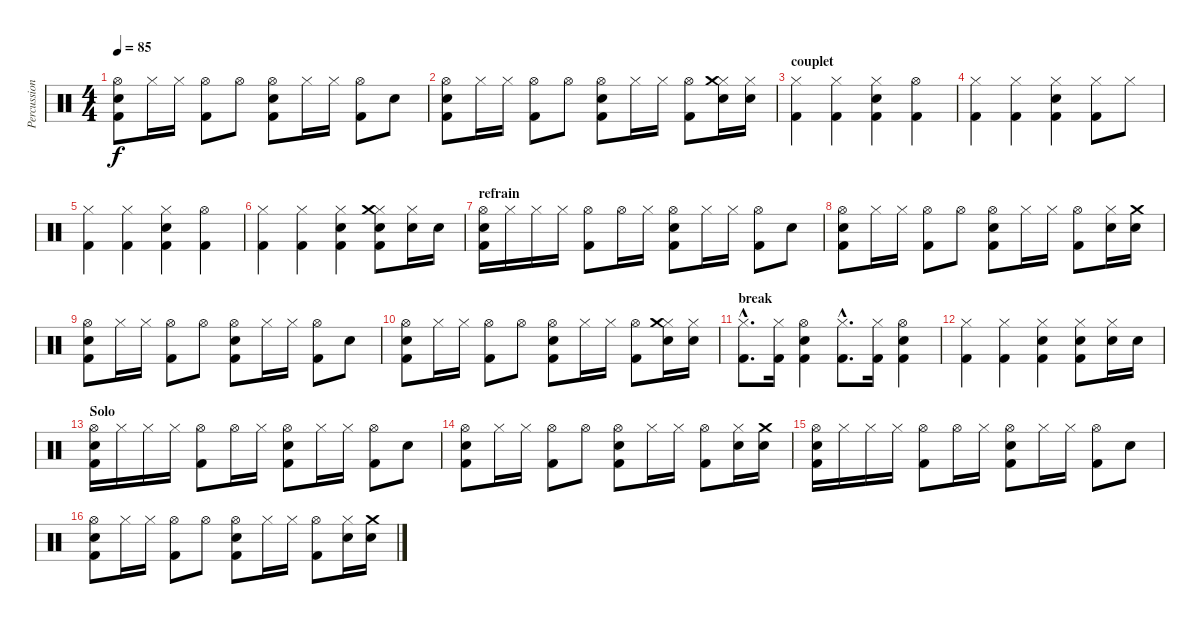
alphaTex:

\track ("Percussions" "Percussion") {instrument percussion}
\staff {score}
\articulation defaults
\ts (4 4)
\tempo 85
\clef neutral
\ks c
("Hi-Hat (open)" "Kick (hit) 2" "Electric Snare (hit)").8{dy f} "Hi-Hat (closed)".16 "Hi-Hat (closed)".16 ("Hi-Hat (open)" "Kick (hit) 2").8 "Hi-Hat (open)".8 ("Hi-Hat (open)" "Electric Snare (hit)" "Kick (hit) 2").8 "Hi-Hat (closed)".16 "Hi-Hat (closed)".16 ("Hi-Hat (open)" "Kick (hit) 2").8 "Electric Snare (hit)".8 |
("Hi-Hat (open)" "Kick (hit) 2" "Electric Snare (hit)").8 "Hi-Hat (closed)".16 "Hi-Hat (closed)".16 ("Hi-Hat (open)" "Kick (hit) 2").8 "Hi-Hat (open)".8 ("Hi-Hat (open)" "Electric Snare (hit)" "Kick (hit) 2").8 "Hi-Hat (closed)".16 "Hi-Hat (closed)".16 ("Hi-Hat (open)" "Kick (hit) 2").8 ("Hi-Hat (closed)" "Electric Snare (hit)" "Crash medium (hit)").16 ("Hi-Hat (closed)" "Electric Snare (hit)").16 |
\section ("" "couplet")
("Hi-Hat (closed)" "Kick (hit) 2").4 ("Hi-Hat (closed)" "Kick (hit) 2").4 ("Hi-Hat (closed)" "Electric Snare (hit)" "Kick (hit) 2").4 ("Hi-Hat (open)" "Kick (hit) 2").4 |
("Hi-Hat (closed)" "Kick (hit) 2").4 ("Hi-Hat (closed)" "Kick (hit) 2").4 ("Hi-Hat (closed)" "Electric Snare (hit)" "Kick (hit) 2").4 ("Hi-Hat (closed)" "Kick (hit) 2").8 "Hi-Hat (closed)".8 |
("Hi-Hat (closed)" "Kick (hit) 2").4 ("Hi-Hat (closed)" "Kick (hit) 2").4 ("Hi-Hat (closed)" "Electric Snare (hit)" "Kick (hit) 2").4 ("Hi-Hat (open)" "Kick (hit) 2").4 |
("Hi-Hat (closed)" "Kick (hit) 2").4 ("Hi-Hat (closed)" "Kick (hit) 2").4 ("Hi-Hat (closed)" "Electric Snare (hit)" "Kick (hit) 2").4 ("Hi-Hat (closed)" "Kick (hit) 2" "Crash medium (hit)" "Electric Snare (hit)").8 ("Hi-Hat (closed)" "Electric Snare (hit)").16 "Electric Snare (hit)".16 |
\section ("" "refrain")
("Hi-Hat (open)" "Kick (hit) 2" "Electric Snare (hit)").16 "Hi-Hat (closed)".16 "Hi-Hat (closed)".16 "Hi-Hat (closed)".16 ("Hi-Hat (open)" "Kick (hit) 2").8 "Hi-Hat (open)".16 "Hi-Hat (closed)".16 ("Hi-Hat (open)" "Electric Snare (hit)" "Kick (hit) 2").8 "Hi-Hat (closed)".16 "Hi-Hat (closed)".16 ("Hi-Hat (open)" "Kick (hit) 2").8 "Electric Snare (hit)".8 |
("Hi-Hat (open)" "Kick (hit) 2" "Electric Snare (hit)").8 "Hi-Hat (closed)".16 "Hi-Hat (closed)".16 ("Hi-Hat (open)" "Kick (hit) 2").8 "Hi-Hat (open)".8 ("Hi-Hat (open)" "Electric Snare (hit)" "Kick (hit) 2").8 "Hi-Hat (closed)".16 "Hi-Hat (closed)".16 ("Hi-Hat (open)" "Kick (hit) 2").8 ("Hi-Hat (closed)" "Electric Snare (hit)").16 ("Crash medium (hit)" "Electric Snare (hit)").16 |
("Hi-Hat (open)" "Kick (hit) 2" "Electric Snare (hit)").8 "Hi-Hat (closed)".16 "Hi-Hat (closed)".16 ("Hi-Hat (open)" "Kick (hit) 2").8 "Hi-Hat (open)".8 ("Hi-Hat (open)" "Electric Snare (hit)" "Kick (hit) 2").8 "Hi-Hat (closed)".16 "Hi-Hat (closed)".16 ("Hi-Hat (open)" "Kick (hit) 2").8 "Electric Snare (hit)".8 |
("Hi-Hat (open)" "Kick (hit) 2" "Electric Snare (hit)").8 "Hi-Hat (closed)".16 "Hi-Hat (closed)".16 ("Hi-Hat (open)" "Kick (hit) 2").8 "Hi-Hat (open)".8 ("Hi-Hat (open)" "Electric Snare (hit)" "Kick (hit) 2").8 "Hi-Hat (closed)".16 "Hi-Hat (closed)".16 ("Hi-Hat (open)" "Kick (hit) 2").8 ("Hi-Hat (closed)" "Electric Snare (hit)" "Crash medium (hit)").16 ("Hi-Hat (closed)" "Electric Snare (hit)").16 |
\section ("" "break")
("Hi-Hat (closed)"{hac} "Kick (hit) 2"{hac}).8{d} ("Hi-Hat (closed)" "Kick (hit) 2").16 ("Hi-Hat (open)" "Electric Snare (hit)" "Kick (hit) 2").4 ("Hi-Hat (closed)"{hac} "Kick (hit) 2"{hac}).8{d} ("Hi-Hat (closed)" "Kick (hit) 2").16 ("Hi-Hat (open)" "Electric Snare (hit)" "Kick (hit) 2").4 |
("Hi-Hat (closed)" "Kick (hit) 2").4 ("Hi-Hat (closed)" "Kick (hit) 2").4 ("Hi-Hat (closed)" "Electric Snare (hit)" "Kick (hit) 2").4 ("Hi-Hat (closed)" "Kick (hit) 2" "Electric Snare (hit)").8 ("Hi-Hat (closed)" "Electric Snare (hit)").16 "Electric Snare (hit)".16 |
\section ("" "Solo")
("Hi-Hat (open)" "Kick (hit) 2" "Electric Snare (hit)").16 "Hi-Hat (closed)".16 "Hi-Hat (closed)".16 "Hi-Hat (closed)".16 ("Hi-Hat (open)" "Kick (hit) 2").8 "Hi-Hat (open)".16 "Hi-Hat (closed)".16 ("Hi-Hat (open)" "Electric Snare (hit)" "Kick (hit) 2").8 "Hi-Hat (closed)".16 "Hi-Hat (closed)".16 ("Hi-Hat (open)" "Kick (hit) 2").8 "Electric Snare (hit)".8 |
("Hi-Hat (open)" "Kick (hit) 2" "Electric Snare (hit)").8 "Hi-Hat (closed)".16 "Hi-Hat (closed)".16 ("Hi-Hat (open)" "Kick (hit) 2").8 "Hi-Hat (open)".8 ("Hi-Hat (open)" "Electric Snare (hit)" "Kick (hit) 2").8 "Hi-Hat (closed)".16 "Hi-Hat (closed)".16 ("Hi-Hat (open)" "Kick (hit) 2").8 ("Hi-Hat (closed)" "Electric Snare (hit)").16 ("Crash medium (hit)" "Electric Snare (hit)").16 |
("Hi-Hat (open)" "Kick (hit) 2" "Electric Snare (hit)").16 "Hi-Hat (closed)".16 "Hi-Hat (closed)".16 "Hi-Hat (closed)".16 ("Hi-Hat (open)" "Kick (hit) 2").8 "Hi-Hat (open)".16 "Hi-Hat (closed)".16 ("Hi-Hat (open)" "Electric Snare (hit)" "Kick (hit) 2").8 "Hi-Hat (closed)".16 "Hi-Hat (closed)".16 ("Hi-Hat (open)" "Kick (hit) 2").8 "Electric Snare (hit)".8 |
("Hi-Hat (open)" "Kick (hit) 2" "Electric Snare (hit)").8 "Hi-Hat (closed)".16 "Hi-Hat (closed)".16 ("Hi-Hat (open)" "Kick (hit) 2").8 "Hi-Hat (open)".8 ("Hi-Hat (open)" "Electric Snare (hit)" "Kick (hit) 2").8 "Hi-Hat (closed)".16 "Hi-Hat (closed)".16 ("Hi-Hat (open)" "Kick (hit) 2").8 ("Hi-Hat (closed)" "Electric Snare (hit)").16 ("Crash medium (hit)" "Electric Snare (hit)").16
